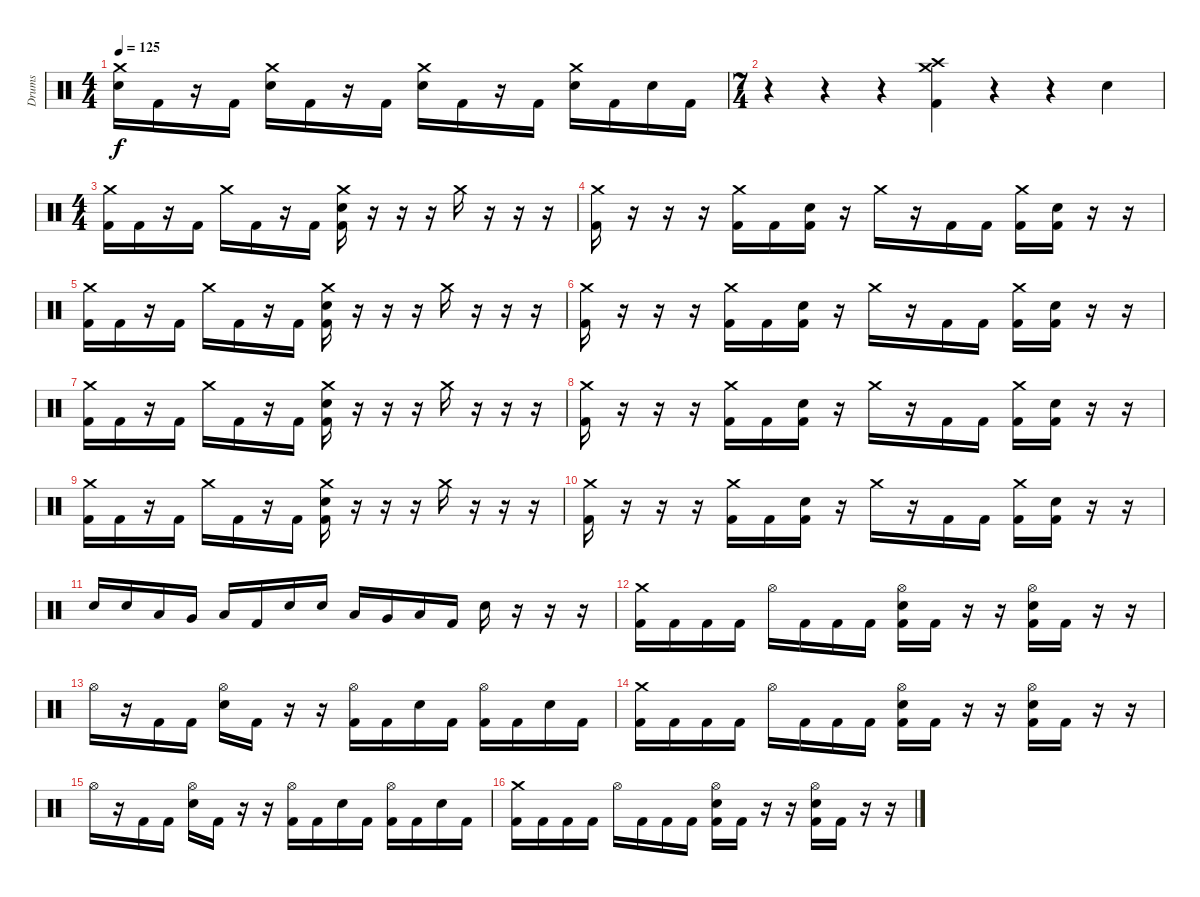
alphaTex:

\track ("Drums" "Drums") {instrument percussion}
\staff {score}
\articulation defaults
\ts (4 4)
\tempo 125
\clef neutral
\ks c
("Crash medium (hit)" "Electric Snare (hit)").16{dy f} "Kick (hit) 2".16 r.16 "Kick (hit) 2".16 ("Crash medium (hit)" "Electric Snare (hit)").16 "Kick (hit) 2".16 r.16 "Kick (hit) 2".16 ("Crash medium (hit)" "Electric Snare (hit)").16 "Kick (hit) 2".16 r.16 "Kick (hit) 2".16 ("Crash medium (hit)" "Electric Snare (hit)").16 "Kick (hit) 2".16 "Electric Snare (hit)".16 "Kick (hit) 2".16 |
\ts (7 4)
r.4 r.4 r.4 ("Crash medium (hit)" "Crash high (hit)" "Kick (hit) 2").4 r.4 r.4 "Electric Snare (hit)".4 |
\ts (4 4)
("Crash medium (hit)" "Kick (hit) 2").16 "Kick (hit) 2".16 r.16 "Kick (hit) 2".16 "Crash medium (hit)".16 "Kick (hit) 2".16 r.16 "Kick (hit) 2".16 ("Crash medium (hit)" "Electric Snare (hit)" "Kick (hit) 2").16 r.16 r.16 r.16 "Crash medium (hit)".16 r.16 r.16 r.16 |
("Crash medium (hit)" "Kick (hit) 2").16 r.16 r.16 r.16 ("Crash medium (hit)" "Kick (hit) 2").16 "Kick (hit) 2".16 ("Electric Snare (hit)" "Kick (hit) 2").16 r.16 "Crash medium (hit)".16 r.16 "Kick (hit) 2".16 "Kick (hit) 2".16 ("Crash medium (hit)" "Kick (hit) 2").16 ("Electric Snare (hit)" "Kick (hit) 2").16 r.16 r.16 |
("Crash medium (hit)" "Kick (hit) 2").16 "Kick (hit) 2".16 r.16 "Kick (hit) 2".16 "Crash medium (hit)".16 "Kick (hit) 2".16 r.16 "Kick (hit) 2".16 ("Crash medium (hit)" "Electric Snare (hit)" "Kick (hit) 2").16 r.16 r.16 r.16 "Crash medium (hit)".16 r.16 r.16 r.16 |
("Crash medium (hit)" "Kick (hit) 2").16 r.16 r.16 r.16 ("Crash medium (hit)" "Kick (hit) 2").16 "Kick (hit) 2".16 ("Electric Snare (hit)" "Kick (hit) 2").16 r.16 "Crash medium (hit)".16 r.16 "Kick (hit) 2".16 "Kick (hit) 2".16 ("Crash medium (hit)" "Kick (hit) 2").16 ("Electric Snare (hit)" "Kick (hit) 2").16 r.16 r.16 |
("Crash medium (hit)" "Kick (hit) 2").16 "Kick (hit) 2".16 r.16 "Kick (hit) 2".16 "Crash medium (hit)".16 "Kick (hit) 2".16 r.16 "Kick (hit) 2".16 ("Crash medium (hit)" "Electric Snare (hit)" "Kick (hit) 2").16 r.16 r.16 r.16 "Crash medium (hit)".16 r.16 r.16 r.16 |
("Crash medium (hit)" "Kick (hit) 2").16 r.16 r.16 r.16 ("Crash medium (hit)" "Kick (hit) 2").16 "Kick (hit) 2".16 ("Electric Snare (hit)" "Kick (hit) 2").16 r.16 "Crash medium (hit)".16 r.16 "Kick (hit) 2".16 "Kick (hit) 2".16 ("Crash medium (hit)" "Kick (hit) 2").16 ("Electric Snare (hit)" "Kick (hit) 2").16 r.16 r.16 |
("Crash medium (hit)" "Kick (hit) 2").16 "Kick (hit) 2".16 r.16 "Kick (hit) 2".16 "Crash medium (hit)".16 "Kick (hit) 2".16 r.16 "Kick (hit) 2".16 ("Crash medium (hit)" "Electric Snare (hit)" "Kick (hit) 2").16 r.16 r.16 r.16 "Crash medium (hit)".16 r.16 r.16 r.16 |
("Crash medium (hit)" "Kick (hit) 2").16 r.16 r.16 r.16 ("Crash medium (hit)" "Kick (hit) 2").16 "Kick (hit) 2".16 ("Electric Snare (hit)" "Kick (hit) 2").16 r.16 "Crash medium (hit)".16 r.16 "Kick (hit) 2".16 "Kick (hit) 2".16 ("Crash medium (hit)" "Kick (hit) 2").16 ("Electric Snare (hit)" "Kick (hit) 2").16 r.16 r.16 |
"Electric Snare (hit)".16 "Electric Snare (hit)".16 "Low Tom (hit)".16 "Very Low Tom (hit)".16 "Low Floor Tom (hit)".16 "Kick (hit) 2".16 "Electric Snare (hit)".16 "Electric Snare (hit)".16 "Low Tom (hit)".16 "Very Low Tom (hit)".16 "Low Floor Tom (hit)".16 "Kick (hit) 2".16 "Electric Snare (hit)".16 r.16 r.16 r.16 |
("Crash medium (hit)" "Kick (hit) 2").16 "Kick (hit) 2".16 "Kick (hit) 2".16 "Kick (hit) 2".16 "Hi-Hat (open)".16 "Kick (hit) 2".16 "Kick (hit) 2".16 "Kick (hit) 2".16 ("Hi-Hat (open)" "Electric Snare (hit)" "Kick (hit) 2").16 "Kick (hit) 2".16 r.16 r.16 ("Hi-Hat (open)" "Electric Snare (hit)" "Kick (hit) 2").16 "Kick (hit) 2".16 r.16 r.16 |
"Hi-Hat (open)".16 r.16 "Kick (hit) 2".16 "Kick (hit) 2".16 ("Hi-Hat (open)" "Electric Snare (hit)").16 "Kick (hit) 2".16 r.16 r.16 ("Hi-Hat (open)" "Kick (hit) 2").16 "Kick (hit) 2".16 "Electric Snare (hit)".16 "Kick (hit) 2".16 ("Hi-Hat (open)" "Kick (hit) 2").16 "Kick (hit) 2".16 "Electric Snare (hit)".16 "Kick (hit) 2".16 |
("Crash medium (hit)" "Kick (hit) 2").16 "Kick (hit) 2".16 "Kick (hit) 2".16 "Kick (hit) 2".16 "Hi-Hat (open)".16 "Kick (hit) 2".16 "Kick (hit) 2".16 "Kick (hit) 2".16 ("Hi-Hat (open)" "Electric Snare (hit)" "Kick (hit) 2").16 "Kick (hit) 2".16 r.16 r.16 ("Hi-Hat (open)" "Electric Snare (hit)" "Kick (hit) 2").16 "Kick (hit) 2".16 r.16 r.16 |
"Hi-Hat (open)".16 r.16 "Kick (hit) 2".16 "Kick (hit) 2".16 ("Hi-Hat (open)" "Electric Snare (hit)").16 "Kick (hit) 2".16 r.16 r.16 ("Hi-Hat (open)" "Kick (hit) 2").16 "Kick (hit) 2".16 "Electric Snare (hit)".16 "Kick (hit) 2".16 ("Hi-Hat (open)" "Kick (hit) 2").16 "Kick (hit) 2".16 "Electric Snare (hit)".16 "Kick (hit) 2".16 |
("Crash medium (hit)" "Kick (hit) 2").16 "Kick (hit) 2".16 "Kick (hit) 2".16 "Kick (hit) 2".16 "Hi-Hat (open)".16 "Kick (hit) 2".16 "Kick (hit) 2".16 "Kick (hit) 2".16 ("Hi-Hat (open)" "Electric Snare (hit)" "Kick (hit) 2").16 "Kick (hit) 2".16 r.16 r.16 ("Hi-Hat (open)" "Electric Snare (hit)" "Kick (hit) 2").16 "Kick (hit) 2".16 r.16 r.16
